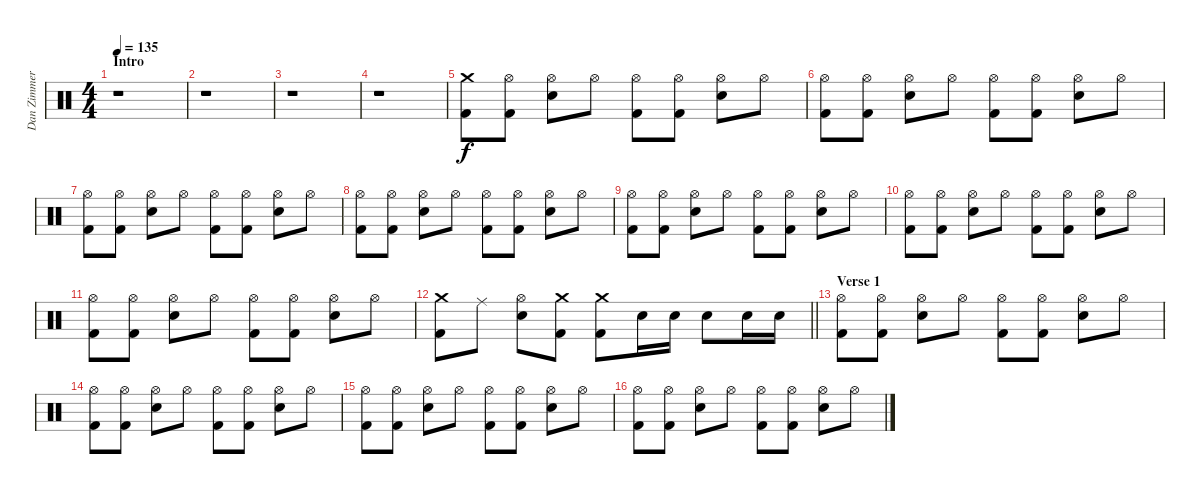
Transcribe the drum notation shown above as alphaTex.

\track ("Dan Zimmermann" "Dan Zimmer") {instrument percussion}
\staff {score}
\articulation defaults
\ts (4 4)
\section ("" "Intro")
\tempo 135
\clef neutral
\ks c
r.1{dy f} |
r.1 |
r.1 |
r.1 |
("Crash medium (hit)" "Kick (hit) 2").8 ("Hi-Hat (open)" "Kick (hit) 2").8 ("Hi-Hat (open)" "Electric Snare (hit)").8 "Hi-Hat (open)".8 ("Hi-Hat (open)" "Kick (hit) 2").8 ("Hi-Hat (open)" "Kick (hit) 2").8 ("Hi-Hat (open)" "Electric Snare (hit)").8 "Hi-Hat (open)".8 |
("Hi-Hat (open)" "Kick (hit) 2").8 ("Hi-Hat (open)" "Kick (hit) 2").8 ("Hi-Hat (open)" "Electric Snare (hit)").8 "Hi-Hat (open)".8 ("Hi-Hat (open)" "Kick (hit) 2").8 ("Hi-Hat (open)" "Kick (hit) 2").8 ("Hi-Hat (open)" "Electric Snare (hit)").8 "Hi-Hat (open)".8 |
("Hi-Hat (open)" "Kick (hit) 2").8 ("Hi-Hat (open)" "Kick (hit) 2").8 ("Hi-Hat (open)" "Electric Snare (hit)").8 "Hi-Hat (open)".8 ("Hi-Hat (open)" "Kick (hit) 2").8 ("Hi-Hat (open)" "Kick (hit) 2").8 ("Hi-Hat (open)" "Electric Snare (hit)").8 "Hi-Hat (open)".8 |
("Hi-Hat (open)" "Kick (hit) 2").8 ("Hi-Hat (open)" "Kick (hit) 2").8 ("Hi-Hat (open)" "Electric Snare (hit)").8 "Hi-Hat (open)".8 ("Hi-Hat (open)" "Kick (hit) 2").8 ("Hi-Hat (open)" "Kick (hit) 2").8 ("Hi-Hat (open)" "Electric Snare (hit)").8 "Hi-Hat (open)".8 |
("Hi-Hat (open)" "Kick (hit) 2").8 ("Hi-Hat (open)" "Kick (hit) 2").8 ("Hi-Hat (open)" "Electric Snare (hit)").8 "Hi-Hat (open)".8 ("Hi-Hat (open)" "Kick (hit) 2").8 ("Hi-Hat (open)" "Kick (hit) 2").8 ("Hi-Hat (open)" "Electric Snare (hit)").8 "Hi-Hat (open)".8 |
("Hi-Hat (open)" "Kick (hit) 2").8 ("Hi-Hat (open)" "Kick (hit) 2").8 ("Hi-Hat (open)" "Electric Snare (hit)").8 "Hi-Hat (open)".8 ("Hi-Hat (open)" "Kick (hit) 2").8 ("Hi-Hat (open)" "Kick (hit) 2").8 ("Hi-Hat (open)" "Electric Snare (hit)").8 "Hi-Hat (open)".8 |
("Hi-Hat (open)" "Kick (hit) 2").8 ("Hi-Hat (open)" "Kick (hit) 2").8 ("Hi-Hat (open)" "Electric Snare (hit)").8 "Hi-Hat (open)".8 ("Hi-Hat (open)" "Kick (hit) 2").8 ("Hi-Hat (open)" "Kick (hit) 2").8 ("Hi-Hat (open)" "Electric Snare (hit)").8 "Hi-Hat (open)".8 |
\barLineRight lightlight
("Crash medium (hit)" "Kick (hit) 2").8 "Ride (middle)".8 ("Hi-Hat (open)" "Electric Snare (hit)").8 ("Crash medium (hit)" "Kick (hit) 2").8 ("Crash medium (hit)" "Kick (hit) 2").8 "Electric Snare (hit)".16 "Electric Snare (hit)".16 "Electric Snare (hit)".8 "Electric Snare (hit)".16 "Electric Snare (hit)".16 |
\section ("" "Verse 1")
("Hi-Hat (open)" "Kick (hit) 2").8 ("Hi-Hat (open)" "Kick (hit) 2").8 ("Hi-Hat (open)" "Electric Snare (hit)").8 "Hi-Hat (open)".8 ("Hi-Hat (open)" "Kick (hit) 2").8 ("Hi-Hat (open)" "Kick (hit) 2").8 ("Hi-Hat (open)" "Electric Snare (hit)").8 "Hi-Hat (open)".8 |
("Hi-Hat (open)" "Kick (hit) 2").8 ("Hi-Hat (open)" "Kick (hit) 2").8 ("Hi-Hat (open)" "Electric Snare (hit)").8 "Hi-Hat (open)".8 ("Hi-Hat (open)" "Kick (hit) 2").8 ("Hi-Hat (open)" "Kick (hit) 2").8 ("Hi-Hat (open)" "Electric Snare (hit)").8 "Hi-Hat (open)".8 |
("Hi-Hat (open)" "Kick (hit) 2").8 ("Hi-Hat (open)" "Kick (hit) 2").8 ("Hi-Hat (open)" "Electric Snare (hit)").8 "Hi-Hat (open)".8 ("Hi-Hat (open)" "Kick (hit) 2").8 ("Hi-Hat (open)" "Kick (hit) 2").8 ("Hi-Hat (open)" "Electric Snare (hit)").8 "Hi-Hat (open)".8 |
("Hi-Hat (open)" "Kick (hit) 2").8 ("Hi-Hat (open)" "Kick (hit) 2").8 ("Hi-Hat (open)" "Electric Snare (hit)").8 "Hi-Hat (open)".8 ("Hi-Hat (open)" "Kick (hit) 2").8 ("Hi-Hat (open)" "Kick (hit) 2").8 ("Hi-Hat (open)" "Electric Snare (hit)").8 "Hi-Hat (open)".8
